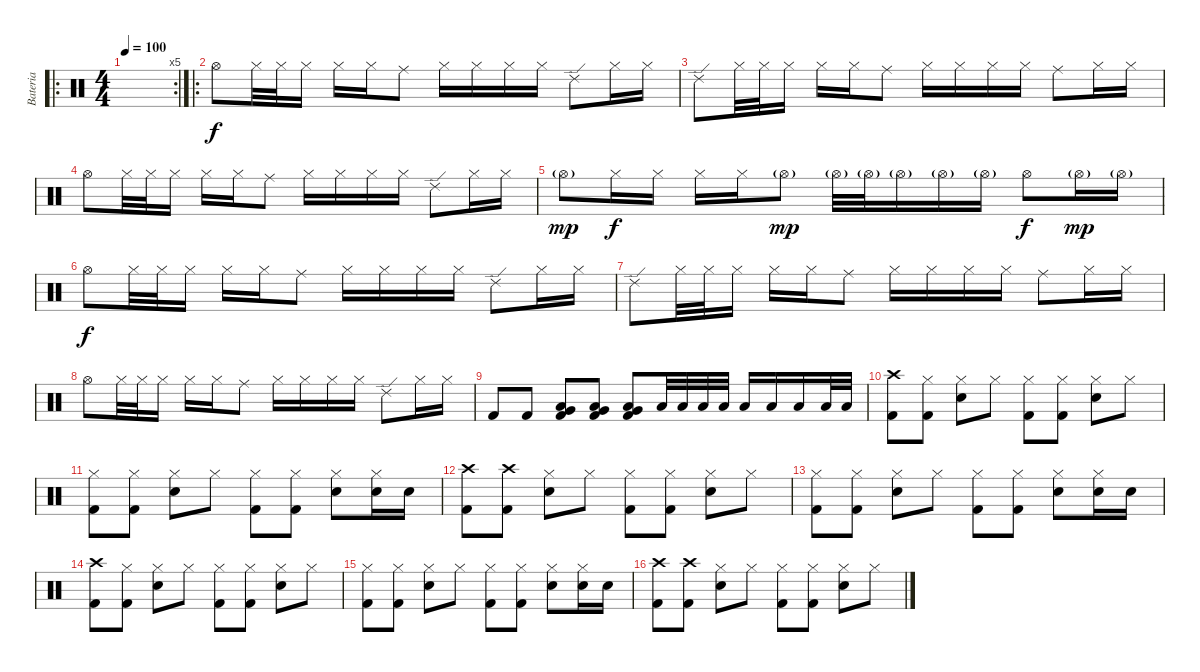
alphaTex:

\track ("Bateria" "Bateria") {instrument percussion}
\staff {score}
\articulation defaults
\ro
\rc 5
\ts (4 4)
\tempo 100
\clef neutral
\ks c
|
\ro "Hi-Hat (open)".8 "Hi-Hat (closed)".32 "Hi-Hat (closed)".32 "Hi-Hat (closed)".16 "Hi-Hat (closed)".16 "Hi-Hat (closed)".16 "Ride (middle)".8 "Hi-Hat (closed)".16 "Hi-Hat (closed)".16 "Hi-Hat (closed)".16 "Hi-Hat (closed)".16 "Ride (edge) 2".8 "Hi-Hat (closed)".16 "Hi-Hat (closed)".16
|
"Ride (edge) 2".8 "Hi-Hat (closed)".32 "Hi-Hat (closed)".32 "Hi-Hat (closed)".16 "Hi-Hat (closed)".16 "Hi-Hat (closed)".16 "Ride (middle)".8 "Hi-Hat (closed)".16 "Hi-Hat (closed)".16 "Hi-Hat (closed)".16 "Hi-Hat (closed)".16 "Ride (middle)".8 "Hi-Hat (closed)".16 "Hi-Hat (closed)".16 |
"Hi-Hat (open)".8 "Hi-Hat (closed)".32 "Hi-Hat (closed)".32 "Hi-Hat (closed)".16 "Hi-Hat (closed)".16 "Hi-Hat (closed)".16 "Ride (middle)".8 "Hi-Hat (closed)".16 "Hi-Hat (closed)".16 "Hi-Hat (closed)".16 "Hi-Hat (closed)".16 "Ride (edge) 2".8 "Hi-Hat (closed)".16 "Hi-Hat (closed)".16 |
"Hi-Hat (open)"{g}.8{dy mp} "Hi-Hat (closed)".16{dy f} "Hi-Hat (closed)".16 "Hi-Hat (closed)".16 "Hi-Hat (closed)".16 "Hi-Hat (open)"{g}.8{dy mp} "Hi-Hat (open)"{g}.32 "Hi-Hat (open)"{g}.32 "Hi-Hat (open)"{g}.16 "Hi-Hat (open)"{g}.16 "Hi-Hat (open)"{g}.16 "Hi-Hat (open)".8{dy f} "Hi-Hat (open)"{g}.16{dy mp} "Hi-Hat (open)"{g}.16 |
"Hi-Hat (open)".8{dy f} "Hi-Hat (closed)".32 "Hi-Hat (closed)".32 "Hi-Hat (closed)".16 "Hi-Hat (closed)".16 "Hi-Hat (closed)".16 "Ride (middle)".8 "Hi-Hat (closed)".16 "Hi-Hat (closed)".16 "Hi-Hat (closed)".16 "Hi-Hat (closed)".16 "Ride (edge) 2".8 "Hi-Hat (closed)".16 "Hi-Hat (closed)".16 |
"Ride (edge) 2".8 "Hi-Hat (closed)".32 "Hi-Hat (closed)".32 "Hi-Hat (closed)".16 "Hi-Hat (closed)".16 "Hi-Hat (closed)".16 "Ride (middle)".8 "Hi-Hat (closed)".16 "Hi-Hat (closed)".16 "Hi-Hat (closed)".16 "Hi-Hat (closed)".16 "Ride (middle)".8 "Hi-Hat (closed)".16 "Hi-Hat (closed)".16 |
"Hi-Hat (open)".8 "Hi-Hat (closed)".32 "Hi-Hat (closed)".32 "Hi-Hat (closed)".16 "Hi-Hat (closed)".16 "Hi-Hat (closed)".16 "Ride (middle)".8 "Hi-Hat (closed)".16 "Hi-Hat (closed)".16 "Hi-Hat (closed)".16 "Hi-Hat (closed)".16 "Ride (edge) 2".8 "Hi-Hat (closed)".16 "Hi-Hat (closed)".16 |
"Kick (hit) 2".8 "Kick (hit) 2".8 ("Low Tom (hit)" "Very Low Tom (hit)" "Kick (hit) 2").8 ("Low Tom (hit)" "Very Low Tom (hit)" "Kick (hit) 2").8 ("Low Tom (hit)" "Very Low Tom (hit)" "Kick (hit) 2").8 "Low Tom (hit)".32 "Low Tom (hit)".32 "Low Tom (hit)".32 "Low Tom (hit)".32 "Low Tom (hit)".16 "Low Tom (hit)".16 "Low Tom (hit)".16 "Low Tom (hit)".32 "Low Tom (hit)".32 |
("Crash high (hit)" "Kick (hit) 2").8 ("Hi-Hat (closed)" "Kick (hit) 2").8 ("Hi-Hat (closed)" "Snare (hit) 2").8 "Hi-Hat (closed)".8 ("Hi-Hat (closed)" "Kick (hit) 2").8 ("Hi-Hat (closed)" "Kick (hit) 2").8 ("Hi-Hat (closed)" "Snare (hit) 2").8 "Hi-Hat (closed)".8 |
("Hi-Hat (closed)" "Kick (hit) 2").8 ("Hi-Hat (closed)" "Kick (hit) 2").8 ("Hi-Hat (closed)" "Snare (hit) 2").8 "Hi-Hat (closed)".8 ("Hi-Hat (closed)" "Kick (hit) 2").8 ("Hi-Hat (closed)" "Kick (hit) 2").8 ("Hi-Hat (closed)" "Snare (hit) 2").8 ("Hi-Hat (closed)" "Snare (hit) 2").16 "Snare (hit) 2".16 |
("Crash high (hit)" "Kick (hit) 2").8 ("Crash high (hit)" "Kick (hit) 2").8 ("Hi-Hat (closed)" "Snare (hit) 2").8 "Hi-Hat (closed)".8 ("Hi-Hat (closed)" "Kick (hit) 2").8 ("Hi-Hat (closed)" "Kick (hit) 2").8 ("Hi-Hat (closed)" "Snare (hit) 2").8 "Hi-Hat (closed)".8 |
("Hi-Hat (closed)" "Kick (hit) 2").8 ("Hi-Hat (closed)" "Kick (hit) 2").8 ("Hi-Hat (closed)" "Snare (hit) 2").8 "Hi-Hat (closed)".8 ("Hi-Hat (closed)" "Kick (hit) 2").8 ("Hi-Hat (closed)" "Kick (hit) 2").8 ("Hi-Hat (closed)" "Snare (hit) 2").8 ("Hi-Hat (closed)" "Snare (hit) 2").16 "Snare (hit) 2".16 |
("Crash high (hit)" "Kick (hit) 2").8 ("Hi-Hat (closed)" "Kick (hit) 2").8 ("Hi-Hat (closed)" "Snare (hit) 2").8 "Hi-Hat (closed)".8 ("Hi-Hat (closed)" "Kick (hit) 2").8 ("Hi-Hat (closed)" "Kick (hit) 2").8 ("Hi-Hat (closed)" "Snare (hit) 2").8 "Hi-Hat (closed)".8 |
("Hi-Hat (closed)" "Kick (hit) 2").8 ("Hi-Hat (closed)" "Kick (hit) 2").8 ("Hi-Hat (closed)" "Snare (hit) 2").8 "Hi-Hat (closed)".8 ("Hi-Hat (closed)" "Kick (hit) 2").8 ("Hi-Hat (closed)" "Kick (hit) 2").8 ("Hi-Hat (closed)" "Snare (hit) 2").8 ("Hi-Hat (closed)" "Snare (hit) 2").16 "Snare (hit) 2".16 |
("Crash high (hit)" "Kick (hit) 2").8 ("Crash high (hit)" "Kick (hit) 2").8 ("Hi-Hat (closed)" "Snare (hit) 2").8 "Hi-Hat (closed)".8 ("Hi-Hat (closed)" "Kick (hit) 2").8 ("Hi-Hat (closed)" "Kick (hit) 2").8 ("Hi-Hat (closed)" "Snare (hit) 2").8 "Hi-Hat (closed)".8
